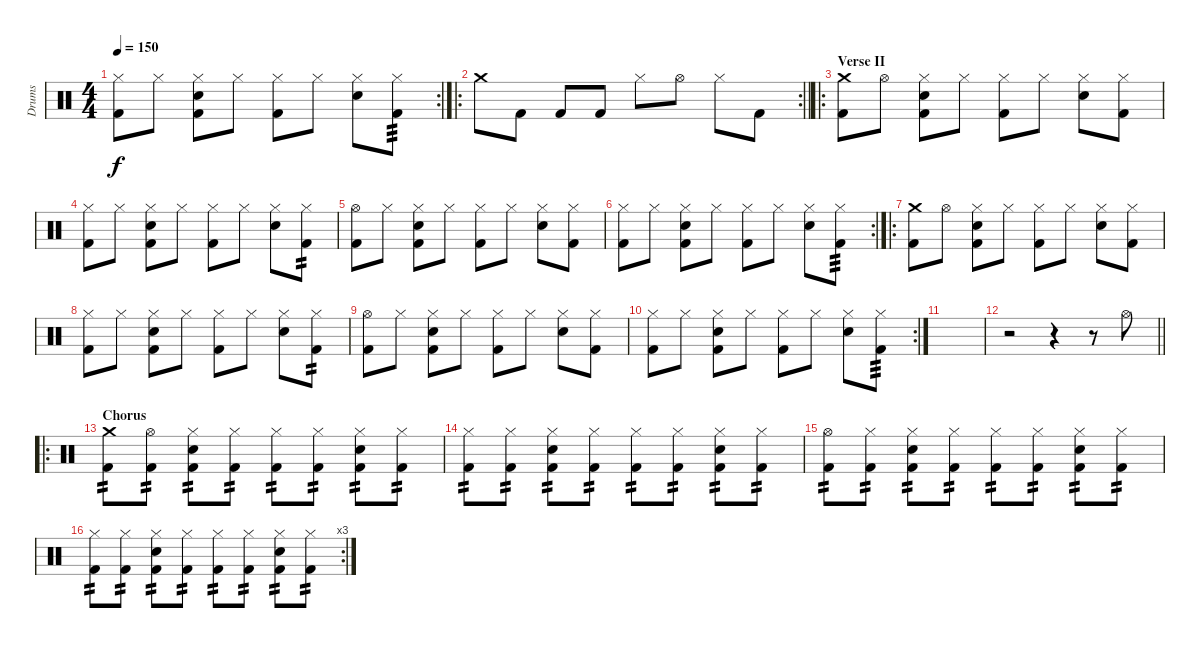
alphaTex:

\track ("Drums" "Drums") {instrument percussion}
\staff {score}
\articulation defaults
\rc 2
\ts (4 4)
\tempo 150
\clef neutral
\ks c
("Kick (hit) 2" "Hi-Hat (closed)").8{dy f} "Hi-Hat (closed)".8 ("Kick (hit) 2" "Snare (hit) 2" "Hi-Hat (closed)").8 "Hi-Hat (closed)".8 ("Kick (hit) 2" "Hi-Hat (closed)").8 "Hi-Hat (closed)".8 ("Snare (hit) 2" "Hi-Hat (closed)").8 ("Kick (hit) 2" "Hi-Hat (closed)").8{tp 3} |
\ro
\rc 2
\barLineRight lightlight "Crash medium (hit)".8 "Kick (hit) 2".8 "Kick (hit) 2".8 "Kick (hit) 2".8 "Hi-Hat (closed)".8 "Hi-Hat (open)".8 "Hi-Hat (closed)".8 "Kick (hit) 2".8
|
\ro
\section ("" "Verse II")
("Kick (hit) 2" "Crash medium (hit)").8 "Hi-Hat (open)".8 ("Kick (hit) 2" "Snare (hit) 2" "Hi-Hat (closed)").8 "Hi-Hat (closed)".8 ("Kick (hit) 2" "Hi-Hat (closed)").8 "Hi-Hat (closed)".8 ("Snare (hit) 2" "Hi-Hat (closed)").8 ("Kick (hit) 2" "Hi-Hat (closed)").8 |
("Kick (hit) 2" "Hi-Hat (closed)").8 "Hi-Hat (closed)".8 ("Kick (hit) 2" "Snare (hit) 2" "Hi-Hat (closed)").8 "Hi-Hat (closed)".8 ("Kick (hit) 2" "Hi-Hat (closed)").8 "Hi-Hat (closed)".8 ("Snare (hit) 2" "Hi-Hat (closed)").8 ("Kick (hit) 2" "Hi-Hat (closed)").8{tp 2} |
("Kick (hit) 2" "Hi-Hat (open)").8 "Hi-Hat (closed)".8 ("Kick (hit) 2" "Snare (hit) 2" "Hi-Hat (closed)").8 "Hi-Hat (closed)".8 ("Kick (hit) 2" "Hi-Hat (closed)").8 "Hi-Hat (closed)".8 ("Snare (hit) 2" "Hi-Hat (closed)").8 ("Kick (hit) 2" "Hi-Hat (closed)").8 |
\rc 2
("Kick (hit) 2" "Hi-Hat (closed)").8 "Hi-Hat (closed)".8 ("Kick (hit) 2" "Snare (hit) 2" "Hi-Hat (closed)").8 "Hi-Hat (closed)".8 ("Kick (hit) 2" "Hi-Hat (closed)").8 "Hi-Hat (closed)".8 ("Snare (hit) 2" "Hi-Hat (closed)").8 ("Kick (hit) 2" "Hi-Hat (closed)").8{tp 3} |
\ro
("Kick (hit) 2" "Crash medium (hit)").8 "Hi-Hat (open)".8 ("Kick (hit) 2" "Snare (hit) 2" "Hi-Hat (closed)").8 "Hi-Hat (closed)".8 ("Kick (hit) 2" "Hi-Hat (closed)").8 "Hi-Hat (closed)".8 ("Snare (hit) 2" "Hi-Hat (closed)").8 ("Kick (hit) 2" "Hi-Hat (closed)").8 |
("Kick (hit) 2" "Hi-Hat (closed)").8 "Hi-Hat (closed)".8 ("Kick (hit) 2" "Snare (hit) 2" "Hi-Hat (closed)").8 "Hi-Hat (closed)".8 ("Kick (hit) 2" "Hi-Hat (closed)").8 "Hi-Hat (closed)".8 ("Snare (hit) 2" "Hi-Hat (closed)").8 ("Kick (hit) 2" "Hi-Hat (closed)").8{tp 2} |
("Kick (hit) 2" "Hi-Hat (open)").8 "Hi-Hat (closed)".8 ("Kick (hit) 2" "Snare (hit) 2" "Hi-Hat (closed)").8 "Hi-Hat (closed)".8 ("Kick (hit) 2" "Hi-Hat (closed)").8 "Hi-Hat (closed)".8 ("Snare (hit) 2" "Hi-Hat (closed)").8 ("Kick (hit) 2" "Hi-Hat (closed)").8 |
\rc 2
("Kick (hit) 2" "Hi-Hat (closed)").8 "Hi-Hat (closed)".8 ("Kick (hit) 2" "Snare (hit) 2" "Hi-Hat (closed)").8 "Hi-Hat (closed)".8 ("Kick (hit) 2" "Hi-Hat (closed)").8 "Hi-Hat (closed)".8 ("Snare (hit) 2" "Hi-Hat (closed)").8 ("Kick (hit) 2" "Hi-Hat (closed)").8{tp 3} |
|
\barLineRight lightlight
r.2 r.4 r.8 "Hi-Hat (open)".8 |
\ro
\section ("" "Chorus")
("Kick (hit) 2" "Crash medium (hit)").8{tp 2} ("Kick (hit) 2" "Hi-Hat (open)").8{tp 2} ("Kick (hit) 2" "Snare (hit) 2" "Hi-Hat (closed)").8{tp 2} ("Kick (hit) 2" "Hi-Hat (closed)").8{tp 2} ("Kick (hit) 2" "Hi-Hat (closed)").8{tp 2} ("Kick (hit) 2" "Hi-Hat (closed)").8{tp 2} ("Kick (hit) 2" "Snare (hit) 2" "Hi-Hat (closed)").8{tp 2} ("Kick (hit) 2" "Hi-Hat (closed)").8{tp 2} |
("Kick (hit) 2" "Hi-Hat (closed)").8{tp 2} ("Kick (hit) 2" "Hi-Hat (closed)").8{tp 2} ("Kick (hit) 2" "Snare (hit) 2" "Hi-Hat (closed)").8{tp 2} ("Kick (hit) 2" "Hi-Hat (closed)").8{tp 2} ("Kick (hit) 2" "Hi-Hat (closed)").8{tp 2} ("Kick (hit) 2" "Hi-Hat (closed)").8{tp 2} ("Kick (hit) 2" "Snare (hit) 2" "Hi-Hat (closed)").8{tp 2} ("Kick (hit) 2" "Hi-Hat (closed)").8{tp 2} |
("Kick (hit) 2" "Hi-Hat (open)").8{tp 2} ("Kick (hit) 2" "Hi-Hat (closed)").8{tp 2} ("Kick (hit) 2" "Snare (hit) 2" "Hi-Hat (closed)").8{tp 2} ("Kick (hit) 2" "Hi-Hat (closed)").8{tp 2} ("Kick (hit) 2" "Hi-Hat (closed)").8{tp 2} ("Kick (hit) 2" "Hi-Hat (closed)").8{tp 2} ("Kick (hit) 2" "Snare (hit) 2" "Hi-Hat (closed)").8{tp 2} ("Kick (hit) 2" "Hi-Hat (closed)").8{tp 2} |
\rc 3
("Kick (hit) 2" "Hi-Hat (closed)").8{tp 2} ("Kick (hit) 2" "Hi-Hat (closed)").8{tp 2} ("Kick (hit) 2" "Snare (hit) 2" "Hi-Hat (closed)").8{tp 2} ("Kick (hit) 2" "Hi-Hat (closed)").8{tp 2} ("Kick (hit) 2" "Hi-Hat (closed)").8{tp 2} ("Kick (hit) 2" "Hi-Hat (closed)").8{tp 2} ("Kick (hit) 2" "Snare (hit) 2" "Hi-Hat (closed)").8{tp 2} ("Kick (hit) 2" "Hi-Hat (closed)").8{tp 2}
